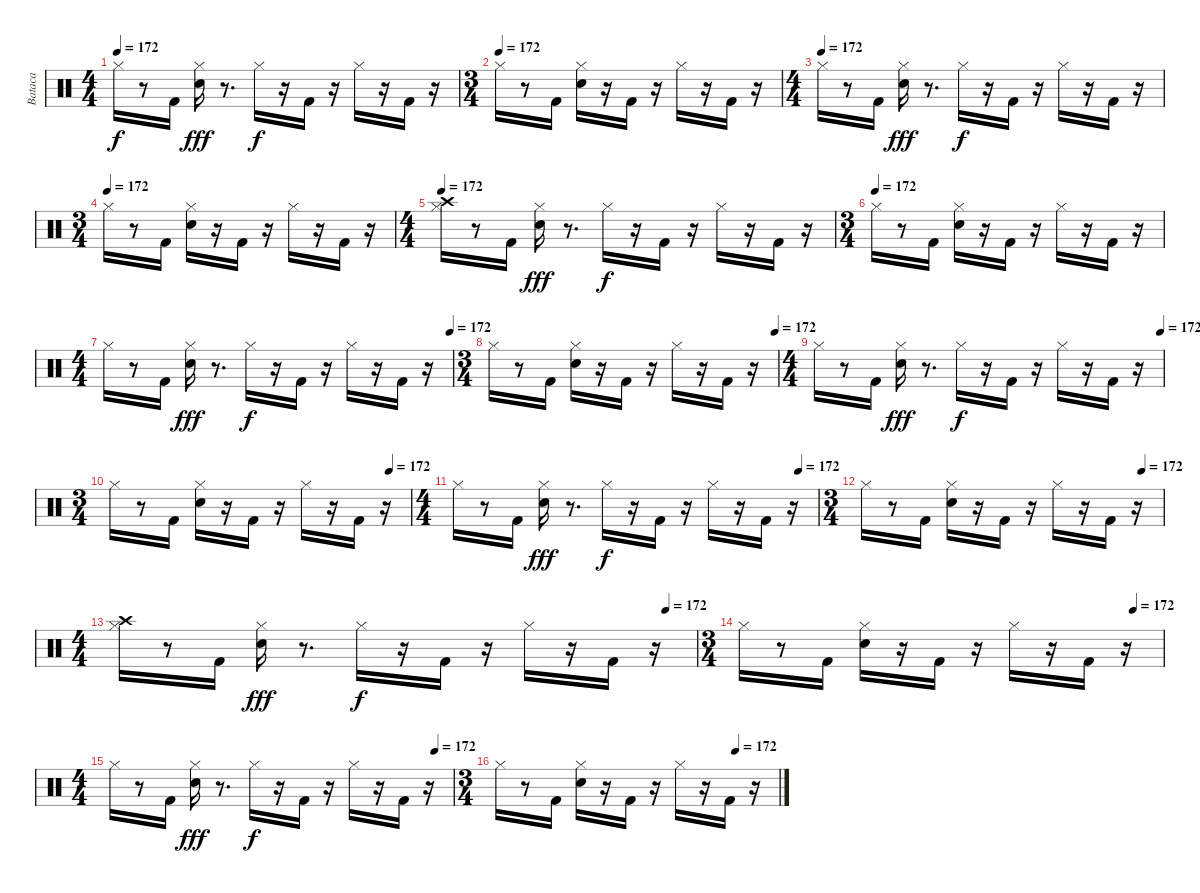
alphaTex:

\track ("Bataca" "Bataca") {instrument percussion}
\staff {score}
\articulation defaults
\ts (4 4)
\tempo 172
\clef neutral
\ks c "Hi-Hat (closed)".16{dy f}
r.8 "Kick (hit) 2".16 ("Hi-Hat (closed)" "Snare (hit) 2").16{dy fff} r.8{d} "Hi-Hat (closed)".16{dy f} r.16 "Kick (hit) 2".16 r.16 "Hi-Hat (closed)".16 r.16 "Kick (hit) 2".16 r.16 |
\ts (3 4)
\tempo (172)
"Hi-Hat (closed)".16 r.8 "Kick (hit) 2".16 ("Hi-Hat (closed)" "Snare (hit) 2").16 r.16 "Kick (hit) 2".16 r.16 "Hi-Hat (closed)".16 r.16 "Kick (hit) 2".16 r.16 |
\ts (4 4)
\tempo (172)
"Hi-Hat (closed)".16 r.8 "Kick (hit) 2".16 ("Hi-Hat (closed)" "Snare (hit) 2").16{dy fff} r.8{d} "Hi-Hat (closed)".16{dy f} r.16 "Kick (hit) 2".16 r.16 "Hi-Hat (closed)".16 r.16 "Kick (hit) 2".16 r.16 |
\ts (3 4)
\tempo (172)
"Hi-Hat (closed)".16 r.8 "Kick (hit) 2".16 ("Hi-Hat (closed)" "Snare (hit) 2").16 r.16 "Kick (hit) 2".16 r.16 "Hi-Hat (closed)".16 r.16 "Kick (hit) 2".16 r.16 |
\ts (4 4)
\tempo 172
("Crash high (hit)" "Hi-Hat (closed)").16 r.8 "Kick (hit) 2".16 ("Hi-Hat (closed)" "Snare (hit) 2").16{dy fff} r.8{d} "Hi-Hat (closed)".16{dy f} r.16 "Kick (hit) 2".16 r.16 "Hi-Hat (closed)".16 r.16 "Kick (hit) 2".16 r.16 |
\ts (3 4)
\tempo (172)
"Hi-Hat (closed)".16 r.8 "Kick (hit) 2".16 ("Hi-Hat (closed)" "Snare (hit) 2").16 r.16 "Kick (hit) 2".16 r.16 "Hi-Hat (closed)".16 r.16 "Kick (hit) 2".16 r.16 |
\ts (4 4)
\tempo (172 0.9947916666666666)
"Hi-Hat (closed)".16 r.8 "Kick (hit) 2".16 ("Hi-Hat (closed)" "Snare (hit) 2").16{dy fff} r.8{d} "Hi-Hat (closed)".16{dy f} r.16 "Kick (hit) 2".16 r.16 "Hi-Hat (closed)".16 r.16 "Kick (hit) 2".16 r.16 |
\ts (3 4)
\tempo (172 0.9930555555555556)
"Hi-Hat (closed)".16 r.8 "Kick (hit) 2".16 ("Hi-Hat (closed)" "Snare (hit) 2").16 r.16 "Kick (hit) 2".16 r.16 "Hi-Hat (closed)".16 r.16 "Kick (hit) 2".16 r.16 |
\ts (4 4)
\tempo (172 0.9947916666666666)
"Hi-Hat (closed)".16 r.8 "Kick (hit) 2".16 ("Hi-Hat (closed)" "Snare (hit) 2").16{dy fff} r.8{d} "Hi-Hat (closed)".16{dy f} r.16 "Kick (hit) 2".16 r.16 "Hi-Hat (closed)".16 r.16 "Kick (hit) 2".16 r.16 |
\ts (3 4)
\tempo (172 0.9305555555555556)
"Hi-Hat (closed)".16 r.8 "Kick (hit) 2".16 ("Hi-Hat (closed)" "Snare (hit) 2").16 r.16 "Kick (hit) 2".16 r.16 "Hi-Hat (closed)".16 r.16 "Kick (hit) 2".16 r.16 |
\ts (4 4)
\tempo (172 0.9479166666666666)
"Hi-Hat (closed)".16 r.8 "Kick (hit) 2".16 ("Hi-Hat (closed)" "Snare (hit) 2").16{dy fff} r.8{d} "Hi-Hat (closed)".16{dy f} r.16 "Kick (hit) 2".16 r.16 "Hi-Hat (closed)".16 r.16 "Kick (hit) 2".16 r.16 |
\ts (3 4)
\tempo (172 0.9305555555555556)
"Hi-Hat (closed)".16 r.8 "Kick (hit) 2".16 ("Hi-Hat (closed)" "Snare (hit) 2").16 r.16 "Kick (hit) 2".16 r.16 "Hi-Hat (closed)".16 r.16 "Kick (hit) 2".16 r.16 |
\ts (4 4)
\tempo (172 0.9479166666666666)
("Crash high (hit)" "Hi-Hat (closed)").16 r.8 "Kick (hit) 2".16 ("Hi-Hat (closed)" "Snare (hit) 2").16{dy fff} r.8{d} "Hi-Hat (closed)".16{dy f} r.16 "Kick (hit) 2".16 r.16 "Hi-Hat (closed)".16 r.16 "Kick (hit) 2".16 r.16 |
\ts (3 4)
\tempo (172 0.9305555555555556)
"Hi-Hat (closed)".16 r.8 "Kick (hit) 2".16 ("Hi-Hat (closed)" "Snare (hit) 2").16 r.16 "Kick (hit) 2".16 r.16 "Hi-Hat (closed)".16 r.16 "Kick (hit) 2".16 r.16 |
\ts (4 4)
\tempo (172 0.9479166666666666)
"Hi-Hat (closed)".16 r.8 "Kick (hit) 2".16 ("Hi-Hat (closed)" "Snare (hit) 2").16{dy fff} r.8{d} "Hi-Hat (closed)".16{dy f} r.16 "Kick (hit) 2".16 r.16 "Hi-Hat (closed)".16 r.16 "Kick (hit) 2".16 r.16 |
\ts (3 4)
\tempo (172 0.8472222222222222)
"Hi-Hat (closed)".16 r.8 "Kick (hit) 2".16 ("Hi-Hat (closed)" "Snare (hit) 2").16 r.16 "Kick (hit) 2".16 r.16 "Hi-Hat (closed)".16 r.16 "Kick (hit) 2".16 r.16
